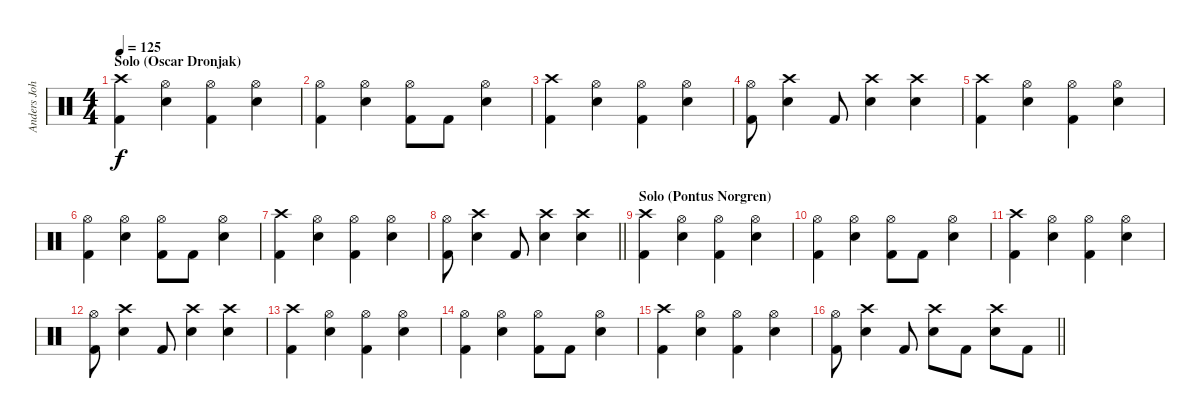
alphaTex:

\track ("Anders Johansson" "Anders Joh") {instrument percussion}
\staff {score}
\articulation defaults
\ts (4 4)
\section ("" "Solo (Oscar Dronjak)")
\tempo 125
\clef neutral
\ks c
("Kick (hit) 2" "Crash high (hit)").4{dy f} ("Electric Snare (hit)" "Hi-Hat (open)").4 ("Kick (hit) 2" "Hi-Hat (open)").4 ("Hi-Hat (open)" "Electric Snare (hit)").4 |
("Kick (hit) 2" "Hi-Hat (open)").4 ("Electric Snare (hit)" "Hi-Hat (open)").4 ("Kick (hit) 2" "Hi-Hat (open)").8 "Kick (hit) 2".8 ("Hi-Hat (open)" "Electric Snare (hit)").4 |
("Kick (hit) 2" "Crash high (hit)").4 ("Electric Snare (hit)" "Hi-Hat (open)").4 ("Kick (hit) 2" "Hi-Hat (open)").4 ("Hi-Hat (open)" "Electric Snare (hit)").4 |
("Kick (hit) 2" "Hi-Hat (open)").8 ("Electric Snare (hit)" "Crash high (hit)").4 "Kick (hit) 2".8 ("Electric Snare (hit)" "Crash high (hit)").4 ("Crash high (hit)" "Electric Snare (hit)").4 |
("Kick (hit) 2" "Crash high (hit)").4 ("Electric Snare (hit)" "Hi-Hat (open)").4 ("Kick (hit) 2" "Hi-Hat (open)").4 ("Hi-Hat (open)" "Electric Snare (hit)").4 |
("Kick (hit) 2" "Hi-Hat (open)").4 ("Electric Snare (hit)" "Hi-Hat (open)").4 ("Kick (hit) 2" "Hi-Hat (open)").8 "Kick (hit) 2".8 ("Hi-Hat (open)" "Electric Snare (hit)").4 |
("Kick (hit) 2" "Crash high (hit)").4 ("Electric Snare (hit)" "Hi-Hat (open)").4 ("Kick (hit) 2" "Hi-Hat (open)").4 ("Hi-Hat (open)" "Electric Snare (hit)").4 |
\barLineRight lightlight
("Kick (hit) 2" "Hi-Hat (open)").8 ("Electric Snare (hit)" "Crash high (hit)").4 "Kick (hit) 2".8 ("Electric Snare (hit)" "Crash high (hit)").4 ("Crash high (hit)" "Electric Snare (hit)").4 |
\section ("" "Solo (Pontus Norgren)")
("Kick (hit) 2" "Crash high (hit)").4 ("Electric Snare (hit)" "Hi-Hat (open)").4 ("Kick (hit) 2" "Hi-Hat (open)").4 ("Hi-Hat (open)" "Electric Snare (hit)").4 |
("Kick (hit) 2" "Hi-Hat (open)").4 ("Electric Snare (hit)" "Hi-Hat (open)").4 ("Kick (hit) 2" "Hi-Hat (open)").8 "Kick (hit) 2".8 ("Hi-Hat (open)" "Electric Snare (hit)").4 |
("Kick (hit) 2" "Crash high (hit)").4 ("Electric Snare (hit)" "Hi-Hat (open)").4 ("Kick (hit) 2" "Hi-Hat (open)").4 ("Hi-Hat (open)" "Electric Snare (hit)").4 |
("Kick (hit) 2" "Hi-Hat (open)").8 ("Electric Snare (hit)" "Crash high (hit)").4 "Kick (hit) 2".8 ("Electric Snare (hit)" "Crash high (hit)").4 ("Crash high (hit)" "Electric Snare (hit)").4 |
("Kick (hit) 2" "Crash high (hit)").4 ("Electric Snare (hit)" "Hi-Hat (open)").4 ("Kick (hit) 2" "Hi-Hat (open)").4 ("Hi-Hat (open)" "Electric Snare (hit)").4 |
("Kick (hit) 2" "Hi-Hat (open)").4 ("Electric Snare (hit)" "Hi-Hat (open)").4 ("Kick (hit) 2" "Hi-Hat (open)").8 "Kick (hit) 2".8 ("Hi-Hat (open)" "Electric Snare (hit)").4 |
("Kick (hit) 2" "Crash high (hit)").4 ("Electric Snare (hit)" "Hi-Hat (open)").4 ("Kick (hit) 2" "Hi-Hat (open)").4 ("Hi-Hat (open)" "Electric Snare (hit)").4 |
\barLineRight lightlight
("Kick (hit) 2" "Hi-Hat (open)").8 ("Electric Snare (hit)" "Crash high (hit)").4 "Kick (hit) 2".8 ("Electric Snare (hit)" "Crash high (hit)").8 "Kick (hit) 2".8 ("Crash high (hit)" "Electric Snare (hit)").8 "Kick (hit) 2".8
